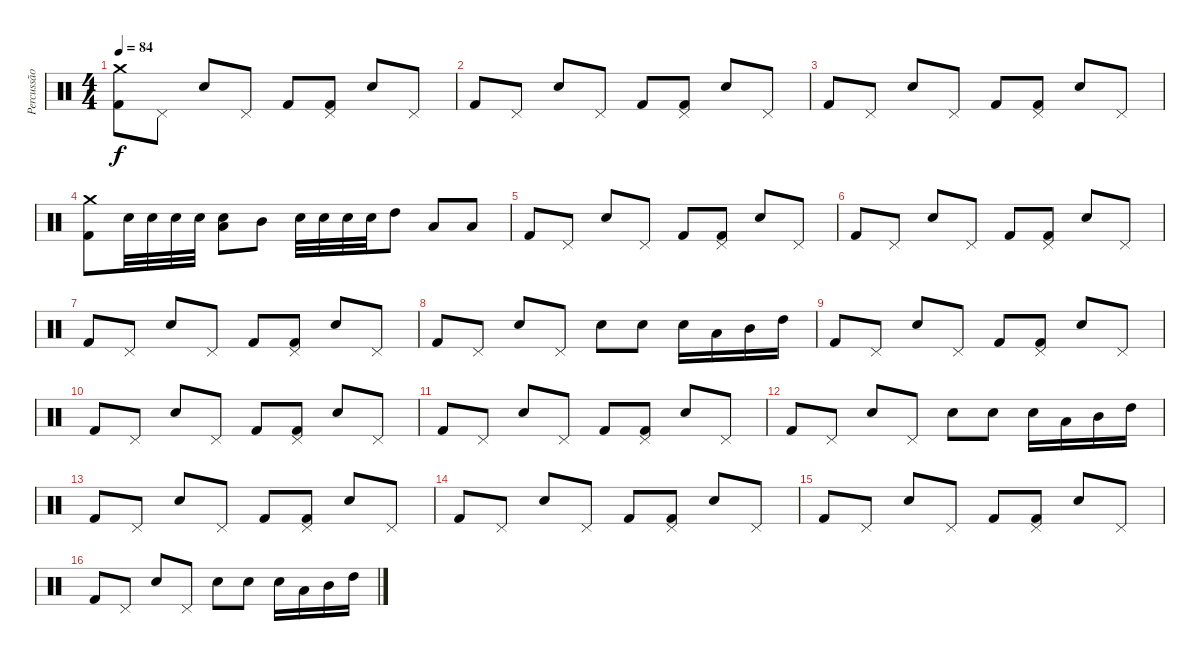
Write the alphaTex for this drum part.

\track ("Percussão" "Percussão") {instrument percussion}
\staff {score}
\articulation defaults
\ts (4 4)
\tempo 84
\clef neutral
\ks c
("Crash medium (hit)" "Kick (hit) 2").8{dy f} "Pedal Hi-Hat (hit)".8 "Snare (hit) 2".8 "Pedal Hi-Hat (hit)".8 "Kick (hit) 2".8 ("Pedal Hi-Hat (hit)" "Kick (hit) 2").8 "Snare (hit) 2".8 "Pedal Hi-Hat (hit)".8 |
"Kick (hit) 2".8 "Pedal Hi-Hat (hit)".8 "Snare (hit) 2".8 "Pedal Hi-Hat (hit)".8 "Kick (hit) 2".8 ("Pedal Hi-Hat (hit)" "Kick (hit) 2").8 "Snare (hit) 2".8 "Pedal Hi-Hat (hit)".8 |
"Kick (hit) 2".8 "Pedal Hi-Hat (hit)".8 "Snare (hit) 2".8 "Pedal Hi-Hat (hit)".8 "Kick (hit) 2".8 ("Pedal Hi-Hat (hit)" "Kick (hit) 2").8 "Snare (hit) 2".8 "Pedal Hi-Hat (hit)".8 |
("Crash medium (hit)" "Kick (hit) 2").8 "Snare (hit) 2".32 "Snare (hit) 2".32 "Snare (hit) 2".32 "Snare (hit) 2".32 ("Electric Snare (hit)" "Low Tom (hit)").8 "Mid Tom (hit)".8 "Snare (hit) 2".32 "Snare (hit) 2".32 "Snare (hit) 2".32 "Snare (hit) 2".32 "High Tom (hit)".8 "Low Tom (hit)".8 "Low Tom (hit)".8 |
"Kick (hit) 2".8 "Pedal Hi-Hat (hit)".8 "Snare (hit) 2".8 "Pedal Hi-Hat (hit)".8 "Kick (hit) 2".8 ("Pedal Hi-Hat (hit)" "Kick (hit) 2").8 "Snare (hit) 2".8 "Pedal Hi-Hat (hit)".8 |
"Kick (hit) 2".8 "Pedal Hi-Hat (hit)".8 "Snare (hit) 2".8 "Pedal Hi-Hat (hit)".8 "Kick (hit) 2".8 ("Pedal Hi-Hat (hit)" "Kick (hit) 2").8 "Snare (hit) 2".8 "Pedal Hi-Hat (hit)".8 |
"Kick (hit) 2".8 "Pedal Hi-Hat (hit)".8 "Snare (hit) 2".8 "Pedal Hi-Hat (hit)".8 "Kick (hit) 2".8 ("Pedal Hi-Hat (hit)" "Kick (hit) 2").8 "Snare (hit) 2".8 "Pedal Hi-Hat (hit)".8 |
"Kick (hit) 2".8 "Pedal Hi-Hat (hit)".8 "Snare (hit) 2".8 "Pedal Hi-Hat (hit)".8 "Electric Snare (hit)".8 "Electric Snare (hit)".8 "Electric Snare (hit)".16 "Low Tom (hit)".16 "Mid Tom (hit)".16 "High Tom (hit)".16 |
"Kick (hit) 2".8 "Pedal Hi-Hat (hit)".8 "Snare (hit) 2".8 "Pedal Hi-Hat (hit)".8 "Kick (hit) 2".8 ("Pedal Hi-Hat (hit)" "Kick (hit) 2").8 "Snare (hit) 2".8 "Pedal Hi-Hat (hit)".8 |
"Kick (hit) 2".8 "Pedal Hi-Hat (hit)".8 "Snare (hit) 2".8 "Pedal Hi-Hat (hit)".8 "Kick (hit) 2".8 ("Pedal Hi-Hat (hit)" "Kick (hit) 2").8 "Snare (hit) 2".8 "Pedal Hi-Hat (hit)".8 |
"Kick (hit) 2".8 "Pedal Hi-Hat (hit)".8 "Snare (hit) 2".8 "Pedal Hi-Hat (hit)".8 "Kick (hit) 2".8 ("Pedal Hi-Hat (hit)" "Kick (hit) 2").8 "Snare (hit) 2".8 "Pedal Hi-Hat (hit)".8 |
"Kick (hit) 2".8 "Pedal Hi-Hat (hit)".8 "Snare (hit) 2".8 "Pedal Hi-Hat (hit)".8 "Electric Snare (hit)".8 "Electric Snare (hit)".8 "Electric Snare (hit)".16 "Low Tom (hit)".16 "Mid Tom (hit)".16 "High Tom (hit)".16 |
"Kick (hit) 2".8 "Pedal Hi-Hat (hit)".8 "Snare (hit) 2".8 "Pedal Hi-Hat (hit)".8 "Kick (hit) 2".8 ("Pedal Hi-Hat (hit)" "Kick (hit) 2").8 "Snare (hit) 2".8 "Pedal Hi-Hat (hit)".8 |
"Kick (hit) 2".8 "Pedal Hi-Hat (hit)".8 "Snare (hit) 2".8 "Pedal Hi-Hat (hit)".8 "Kick (hit) 2".8 ("Pedal Hi-Hat (hit)" "Kick (hit) 2").8 "Snare (hit) 2".8 "Pedal Hi-Hat (hit)".8 |
"Kick (hit) 2".8 "Pedal Hi-Hat (hit)".8 "Snare (hit) 2".8 "Pedal Hi-Hat (hit)".8 "Kick (hit) 2".8 ("Pedal Hi-Hat (hit)" "Kick (hit) 2").8 "Snare (hit) 2".8 "Pedal Hi-Hat (hit)".8 |
"Kick (hit) 2".8 "Pedal Hi-Hat (hit)".8 "Snare (hit) 2".8 "Pedal Hi-Hat (hit)".8 "Electric Snare (hit)".8 "Electric Snare (hit)".8 "Electric Snare (hit)".16 "Low Tom (hit)".16 "Mid Tom (hit)".16 "High Tom (hit)".16
